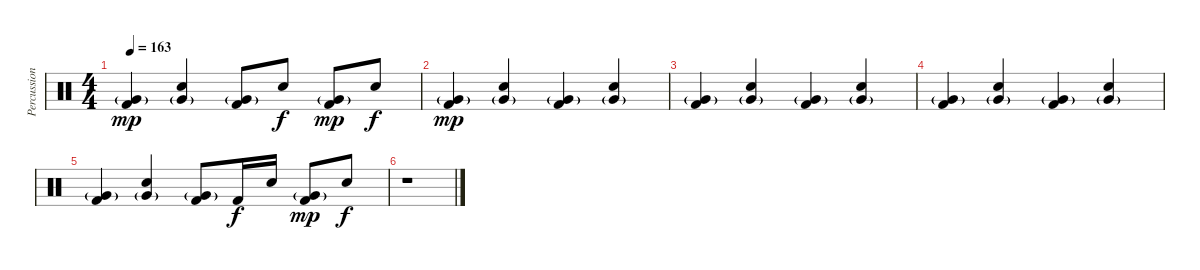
\track ("Percussion" "Percussion") {instrument percussion}
\staff {score}
\articulation defaults
\ts (4 4)
\tempo 163
\clef neutral
\ks c
("Very Low Tom (hit)"{g} "Kick (hit) 2").4{dy mp} ("Very Low Tom (hit)"{g} "Snare (hit) 2").4 ("Very Low Tom (hit)"{g} "Kick (hit) 2").8 "Snare (hit) 2".8{dy f} ("Very Low Tom (hit)"{g} "Kick (hit) 2").8{dy mp} "Snare (hit) 2".8{dy f} |
("Very Low Tom (hit)"{g} "Kick (hit) 2").4{dy mp} ("Very Low Tom (hit)"{g} "Snare (hit) 2").4 ("Very Low Tom (hit)"{g} "Kick (hit) 2").4 ("Very Low Tom (hit)"{g} "Snare (hit) 2").4 |
("Very Low Tom (hit)"{g} "Kick (hit) 2").4 ("Very Low Tom (hit)"{g} "Snare (hit) 2").4 ("Very Low Tom (hit)"{g} "Kick (hit) 2").4 ("Very Low Tom (hit)"{g} "Snare (hit) 2").4 |
("Very Low Tom (hit)"{g} "Kick (hit) 2").4 ("Very Low Tom (hit)"{g} "Snare (hit) 2").4 ("Very Low Tom (hit)"{g} "Kick (hit) 2").4 ("Very Low Tom (hit)"{g} "Snare (hit) 2").4 |
("Very Low Tom (hit)"{g} "Kick (hit) 2").4 ("Very Low Tom (hit)"{g} "Snare (hit) 2").4 ("Very Low Tom (hit)"{g} "Kick (hit) 2").8 "Kick (hit) 2".16{dy f} "Snare (hit) 2".16 ("Very Low Tom (hit)"{g} "Kick (hit) 2").8{dy mp} "Snare (hit) 2".8{dy f} |
r.1
